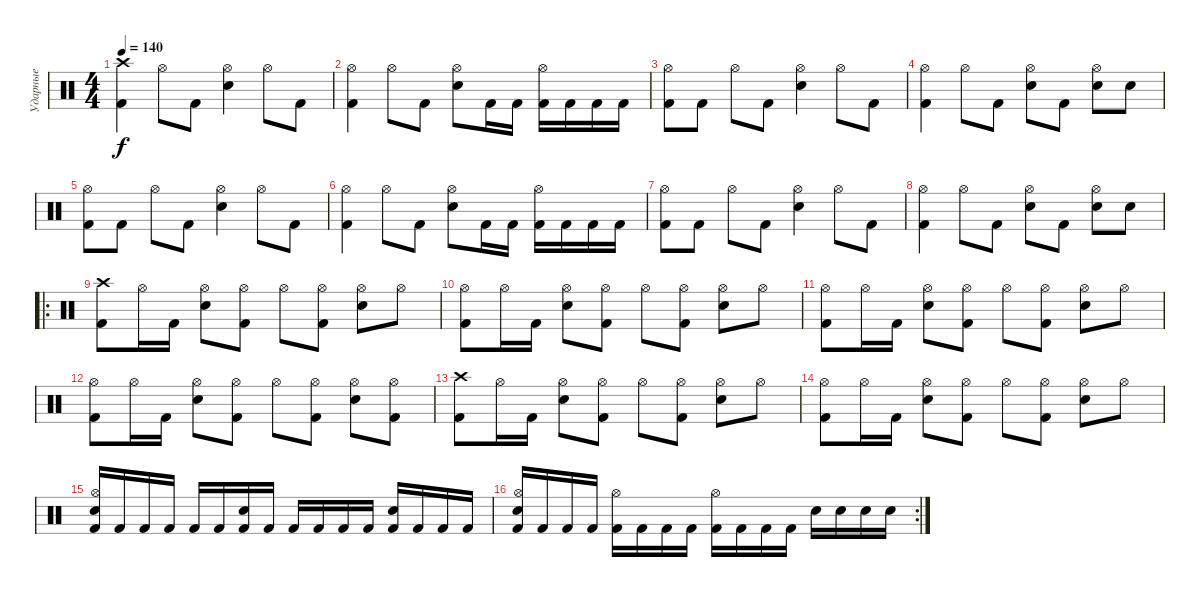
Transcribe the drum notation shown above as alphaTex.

\track ("Ударные" "Ударные") {instrument percussion}
\staff {score}
\articulation defaults
\ts (4 4)
\tempo 140
\clef neutral
\ks c
("Crash high (hit)" "Kick (hit) 2").4{dy f} "Hi-Hat (open)".8 "Kick (hit) 2".8 ("Hi-Hat (open)" "Snare (hit) 2").4 "Hi-Hat (open)".8 "Kick (hit) 2".8 |
("Hi-Hat (open)" "Kick (hit) 2").4 "Hi-Hat (open)".8 "Kick (hit) 2".8 ("Hi-Hat (open)" "Snare (hit) 2").8 "Kick (hit) 2".16 "Kick (hit) 2".16 ("Hi-Hat (open)" "Kick (hit) 2").16 "Kick (hit) 2".16 "Kick (hit) 2".16 "Kick (hit) 2".16 |
("Hi-Hat (open)" "Kick (hit) 2").8 "Kick (hit) 2".8 "Hi-Hat (open)".8 "Kick (hit) 2".8 ("Hi-Hat (open)" "Snare (hit) 2").4 "Hi-Hat (open)".8 "Kick (hit) 2".8 |
("Hi-Hat (open)" "Kick (hit) 2").4 "Hi-Hat (open)".8 "Kick (hit) 2".8 ("Hi-Hat (open)" "Snare (hit) 2").8 "Kick (hit) 2".8 ("Hi-Hat (open)" "Snare (hit) 2").8 "Snare (hit) 2".8 |
("Hi-Hat (open)" "Kick (hit) 2").8 "Kick (hit) 2".8 "Hi-Hat (open)".8 "Kick (hit) 2".8 ("Hi-Hat (open)" "Snare (hit) 2").4 "Hi-Hat (open)".8 "Kick (hit) 2".8 |
("Hi-Hat (open)" "Kick (hit) 2").4 "Hi-Hat (open)".8 "Kick (hit) 2".8 ("Hi-Hat (open)" "Snare (hit) 2").8 "Kick (hit) 2".16 "Kick (hit) 2".16 ("Hi-Hat (open)" "Kick (hit) 2").16 "Kick (hit) 2".16 "Kick (hit) 2".16 "Kick (hit) 2".16 |
("Hi-Hat (open)" "Kick (hit) 2").8 "Kick (hit) 2".8 "Hi-Hat (open)".8 "Kick (hit) 2".8 ("Hi-Hat (open)" "Snare (hit) 2").4 "Hi-Hat (open)".8 "Kick (hit) 2".8 |
("Hi-Hat (open)" "Kick (hit) 2").4 "Hi-Hat (open)".8 "Kick (hit) 2".8 ("Hi-Hat (open)" "Snare (hit) 2").8 "Kick (hit) 2".8 ("Hi-Hat (open)" "Snare (hit) 2").8 "Snare (hit) 2".8 |
\ro
("Crash high (hit)" "Kick (hit) 2").8 "Hi-Hat (open)".16 "Kick (hit) 2".16 ("Hi-Hat (open)" "Snare (hit) 2").8 ("Hi-Hat (open)" "Kick (hit) 2").8 "Hi-Hat (open)".8 ("Hi-Hat (open)" "Kick (hit) 2").8 ("Hi-Hat (open)" "Snare (hit) 2").8 "Hi-Hat (open)".8 |
("Hi-Hat (open)" "Kick (hit) 2").8 "Hi-Hat (open)".16 "Kick (hit) 2".16 ("Hi-Hat (open)" "Snare (hit) 2").8 ("Hi-Hat (open)" "Kick (hit) 2").8 "Hi-Hat (open)".8 ("Hi-Hat (open)" "Kick (hit) 2").8 ("Hi-Hat (open)" "Snare (hit) 2").8 "Hi-Hat (open)".8 |
("Hi-Hat (open)" "Kick (hit) 2").8 "Hi-Hat (open)".16 "Kick (hit) 2".16 ("Hi-Hat (open)" "Snare (hit) 2").8 ("Hi-Hat (open)" "Kick (hit) 2").8 "Hi-Hat (open)".8 ("Hi-Hat (open)" "Kick (hit) 2").8 ("Hi-Hat (open)" "Snare (hit) 2").8 "Hi-Hat (open)".8 |
("Hi-Hat (open)" "Kick (hit) 2").8 "Hi-Hat (open)".16 "Kick (hit) 2".16 ("Hi-Hat (open)" "Snare (hit) 2").8 ("Hi-Hat (open)" "Kick (hit) 2").8 "Hi-Hat (open)".8 ("Hi-Hat (open)" "Kick (hit) 2").8 ("Hi-Hat (open)" "Snare (hit) 2").8 ("Hi-Hat (open)" "Kick (hit) 2").8 |
("Crash high (hit)" "Kick (hit) 2").8 "Hi-Hat (open)".16 "Kick (hit) 2".16 ("Hi-Hat (open)" "Snare (hit) 2").8 ("Hi-Hat (open)" "Kick (hit) 2").8 "Hi-Hat (open)".8 ("Hi-Hat (open)" "Kick (hit) 2").8 ("Hi-Hat (open)" "Snare (hit) 2").8 "Hi-Hat (open)".8 |
("Hi-Hat (open)" "Kick (hit) 2").8 "Hi-Hat (open)".16 "Kick (hit) 2".16 ("Hi-Hat (open)" "Snare (hit) 2").8 ("Hi-Hat (open)" "Kick (hit) 2").8 "Hi-Hat (open)".8 ("Hi-Hat (open)" "Kick (hit) 2").8 ("Hi-Hat (open)" "Snare (hit) 2").8 "Hi-Hat (open)".8 |
("Hi-Hat (open)" "Snare (hit) 2" "Kick (hit) 2").16 "Kick (hit) 2".16 "Kick (hit) 2".16 "Kick (hit) 2".16 "Kick (hit) 2".16 "Kick (hit) 2".16 ("Snare (hit) 2" "Kick (hit) 2").16 "Kick (hit) 2".16 "Kick (hit) 2".16 "Kick (hit) 2".16 "Kick (hit) 2".16 "Kick (hit) 2".16 ("Snare (hit) 2" "Kick (hit) 2").16 "Kick (hit) 2".16 "Kick (hit) 2".16 "Kick (hit) 2".16 |
\rc 2
("Hi-Hat (open)" "Snare (hit) 2" "Kick (hit) 2").16 "Kick (hit) 2".16 "Kick (hit) 2".16 "Kick (hit) 2".16 ("Hi-Hat (open)" "Kick (hit) 2").16 "Kick (hit) 2".16 "Kick (hit) 2".16 "Kick (hit) 2".16 ("Hi-Hat (open)" "Kick (hit) 2").16 "Kick (hit) 2".16 "Kick (hit) 2".16 "Kick (hit) 2".16 "Snare (hit) 2".16 "Snare (hit) 2".16 "Snare (hit) 2".16 "Snare (hit) 2".16
